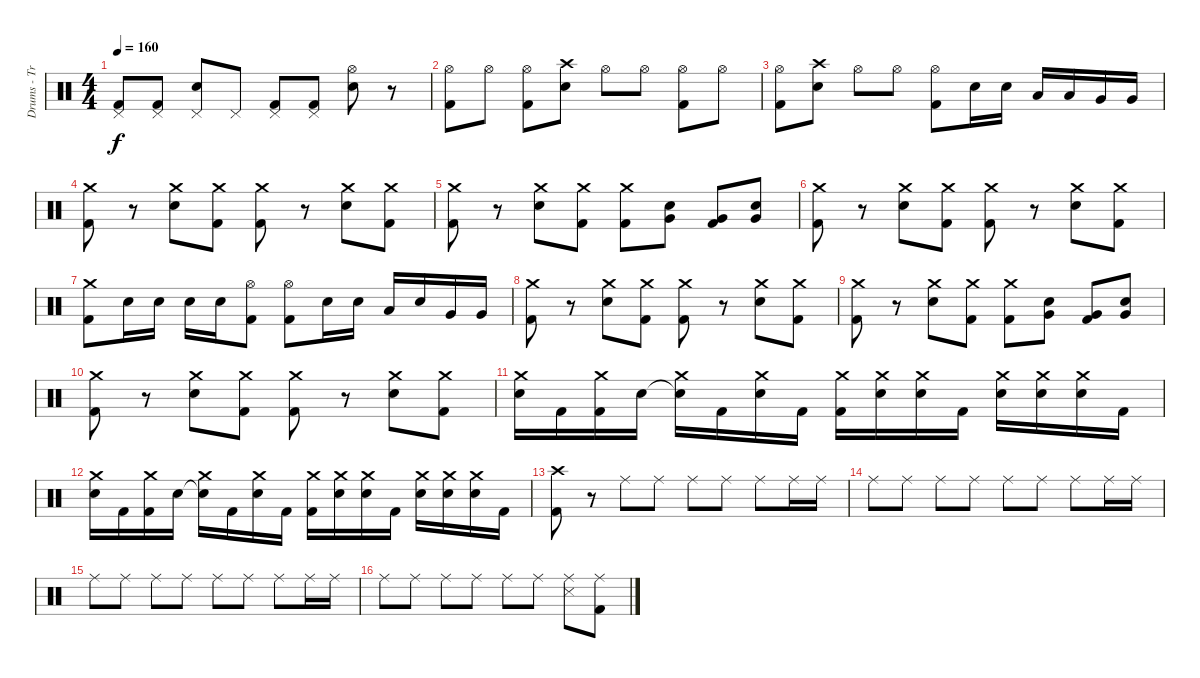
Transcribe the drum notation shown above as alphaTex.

\track ("Drums - Travis Barker" "Drums - Tr") {instrument percussion}
\staff {score}
\articulation defaults
\ts (4 4)
\tempo 160
\clef neutral
\ks c
("Pedal Hi-Hat (hit)" "Kick (hit) 2").8{dy f} ("Pedal Hi-Hat (hit)" "Kick (hit) 2").8 ("Pedal Hi-Hat (hit)" "Snare (hit) 2").8 "Pedal Hi-Hat (hit)".8 ("Pedal Hi-Hat (hit)" "Kick (hit) 2").8 ("Pedal Hi-Hat (hit)" "Kick (hit) 2").8 ("Hi-Hat (open)" "Snare (hit) 2").8 r.8 |
("Hi-Hat (open)" "Kick (hit) 2").8 "Hi-Hat (open)".8 ("Hi-Hat (open)" "Kick (hit) 2").8 ("Crash high (hit)" "Snare (hit) 2").8 "Hi-Hat (open)".8 "Hi-Hat (open)".8 ("Hi-Hat (open)" "Kick (hit) 2").8 "Hi-Hat (open)".8 |
("Hi-Hat (open)" "Kick (hit) 2").8 ("Crash high (hit)" "Snare (hit) 2").8 "Hi-Hat (open)".8 "Hi-Hat (open)".8 ("Hi-Hat (open)" "Kick (hit) 2").8 "Snare (hit) 2".16 "Snare (hit) 2".16 "Low Tom (hit)".16 "Low Tom (hit)".16 "Very Low Tom (hit)".16 "Very Low Tom (hit)".16 |
("Kick (hit) 2" "Crash medium (hit)").8 r.8 ("Snare (hit) 2" "Crash medium (hit)").8 ("Kick (hit) 2" "Crash medium (hit)").8 ("Kick (hit) 2" "Crash medium (hit)").8 r.8 ("Snare (hit) 2" "Crash medium (hit)").8 ("Kick (hit) 2" "Crash medium (hit)").8 |
("Kick (hit) 2" "Crash medium (hit)").8 r.8 ("Snare (hit) 2" "Crash medium (hit)").8 ("Kick (hit) 2" "Crash medium (hit)").8 ("Kick (hit) 2" "Crash medium (hit)").8 ("Snare (hit) 2" "Very Low Tom (hit)").8 ("Kick (hit) 2" "Very Low Tom (hit)").8 ("Snare (hit) 2" "Very Low Tom (hit)").8 |
("Kick (hit) 2" "Crash medium (hit)").8 r.8 ("Snare (hit) 2" "Crash medium (hit)").8 ("Kick (hit) 2" "Crash medium (hit)").8 ("Kick (hit) 2" "Crash medium (hit)").8 r.8 ("Snare (hit) 2" "Crash medium (hit)").8 ("Kick (hit) 2" "Crash medium (hit)").8 |
("Kick (hit) 2" "Crash medium (hit)").8 "Snare (hit) 2".16 "Snare (hit) 2".16 "Snare (hit) 2".16 "Snare (hit) 2".16 ("Hi-Hat (open)" "Kick (hit) 2").8 ("Hi-Hat (open)" "Kick (hit) 2").8 "Snare (hit) 2".16 "Snare (hit) 2".16 "Low Tom (hit)".16 "Snare (hit) 2".16 "Very Low Tom (hit)".16 "Very Low Tom (hit)".16 |
("Kick (hit) 2" "Crash medium (hit)").8 r.8 ("Snare (hit) 2" "Crash medium (hit)").8 ("Kick (hit) 2" "Crash medium (hit)").8 ("Kick (hit) 2" "Crash medium (hit)").8 r.8 ("Snare (hit) 2" "Crash medium (hit)").8 ("Kick (hit) 2" "Crash medium (hit)").8 |
("Kick (hit) 2" "Crash medium (hit)").8 r.8 ("Snare (hit) 2" "Crash medium (hit)").8 ("Kick (hit) 2" "Crash medium (hit)").8 ("Kick (hit) 2" "Crash medium (hit)").8 ("Snare (hit) 2" "Very Low Tom (hit)").8 ("Kick (hit) 2" "Very Low Tom (hit)").8 ("Snare (hit) 2" "Very Low Tom (hit)").8 |
("Kick (hit) 2" "Crash medium (hit)").8 r.8 ("Snare (hit) 2" "Crash medium (hit)").8 ("Kick (hit) 2" "Crash medium (hit)").8 ("Kick (hit) 2" "Crash medium (hit)").8 r.8 ("Snare (hit) 2" "Crash medium (hit)").8 ("Kick (hit) 2" "Crash medium (hit)").8 |
("Snare (hit) 2" "Crash medium (hit)").16 "Kick (hit) 2".16 ("Kick (hit) 2" "Crash medium (hit)").16 "Snare (hit) 2".16 ("Snare (hit)"{t} "Crash medium (hit)").16 "Kick (hit) 2".16 ("Snare (hit) 2" "Crash medium (hit)").16 "Kick (hit) 2".16 ("Kick (hit) 2" "Crash medium (hit)").16 ("Snare (hit) 2" "Crash medium (hit)").16 ("Snare (hit) 2" "Crash medium (hit)").16 "Kick (hit) 2".16 ("Snare (hit) 2" "Crash medium (hit)").16 ("Snare (hit) 2" "Crash medium (hit)").16 ("Snare (hit) 2" "Crash medium (hit)").16 "Kick (hit) 2".16 |
("Snare (hit) 2" "Crash medium (hit)").16 "Kick (hit) 2".16 ("Kick (hit) 2" "Crash medium (hit)").16 "Snare (hit) 2".16 ("Snare (hit)"{t} "Crash medium (hit)").16 "Kick (hit) 2".16 ("Snare (hit) 2" "Crash medium (hit)").16 "Kick (hit) 2".16 ("Kick (hit) 2" "Crash medium (hit)").16 ("Snare (hit) 2" "Crash medium (hit)").16 ("Snare (hit) 2" "Crash medium (hit)").16 "Kick (hit) 2".16 ("Snare (hit) 2" "Crash medium (hit)").16 ("Snare (hit) 2" "Crash medium (hit)").16 ("Snare (hit) 2" "Crash medium (hit)").16 "Kick (hit) 2".16 |
("Crash high (hit)" "Kick (hit) 2").8 r.8 "Ride (middle)".8 "Ride (middle)".8 "Ride (middle)".8 "Ride (middle)".8 "Ride (middle)".8 "Ride (middle)".16 "Ride (middle)".16 |
"Ride (middle)".8 "Ride (middle)".8 "Ride (middle)".8 "Ride (middle)".8 "Ride (middle)".8 "Ride (middle)".8 "Ride (middle)".8 "Ride (middle)".16 "Ride (middle)".16 |
"Ride (middle)".8 "Ride (middle)".8 "Ride (middle)".8 "Ride (middle)".8 "Ride (middle)".8 "Ride (middle)".8 "Ride (middle)".8 "Ride (middle)".16 "Ride (middle)".16 |
"Ride (middle)".8 "Ride (middle)".8 "Ride (middle)".8 "Ride (middle)".8 "Ride (middle)".8 "Ride (middle)".8 ("Ride (middle)" "Snare (side stick) 3").8 ("Ride (middle)" "Kick (hit) 2").8
